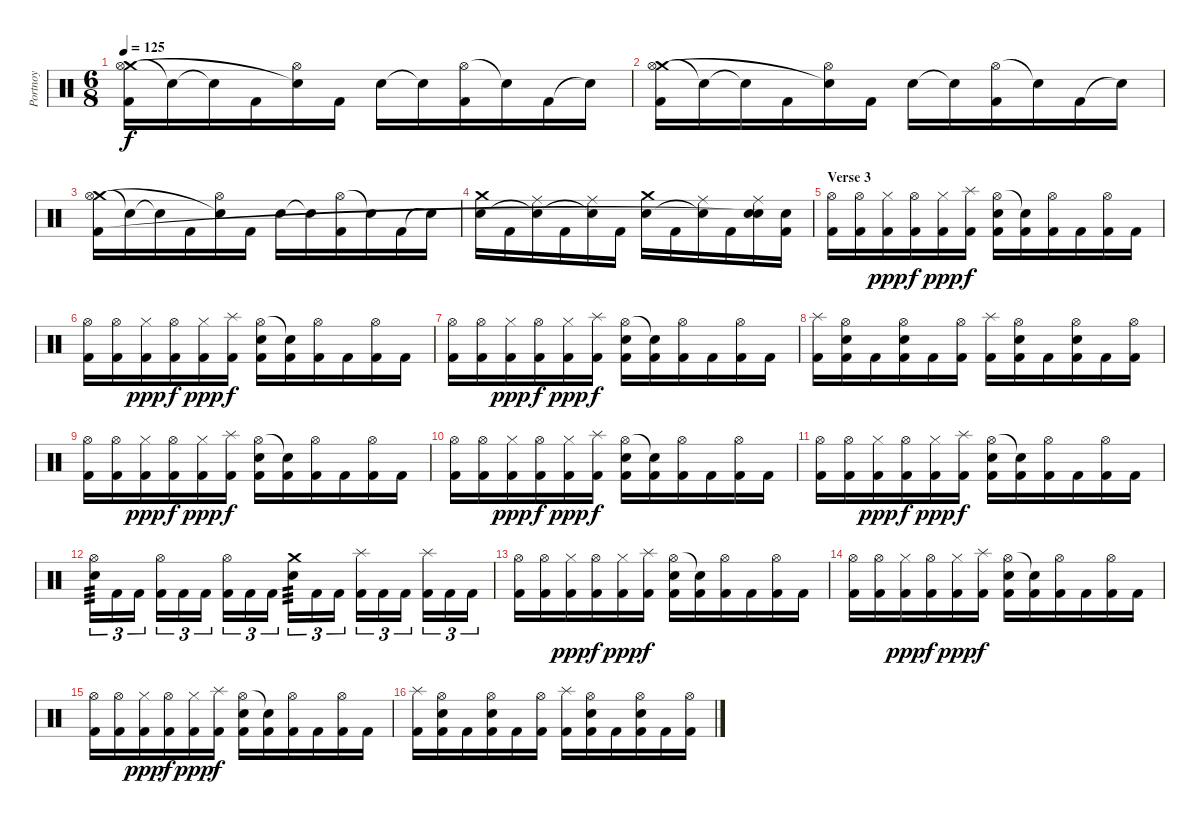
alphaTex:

\track ("Portnoy" "Portnoy") {instrument percussion}
\staff {score}
\articulation defaults
\ts (6 8)
\tempo 125
\clef neutral
\ks c
("Crash medium (hit)" "Hi-Hat (open)" "Kick (hit) 2").16{dy f} "Snare (hit)"{t}.16 "Snare (hit)"{t}.16 "Kick (hit) 2".16 ("Hi-Hat (open)" "Snare (hit)"{t}).16 "Kick (hit) 2".16 "Snare (hit) 2".16 "Snare (hit)"{t}.16 ("Hi-Hat (open)" "Kick (hit) 2").16 "Snare (hit)"{t}.16 "Kick (hit) 2".16 "Snare (hit)"{t}.16 |
("Crash medium (hit)" "Hi-Hat (open)" "Kick (hit) 2").16 "Snare (hit)"{t}.16 "Snare (hit)"{t}.16 "Kick (hit) 2".16 ("Hi-Hat (open)" "Snare (hit)"{t}).16 "Kick (hit) 2".16 "Snare (hit) 2".16 "Snare (hit)"{t}.16 ("Hi-Hat (open)" "Kick (hit) 2").16 "Snare (hit)"{t}.16 "Kick (hit) 2".16 "Snare (hit)"{t}.16 |
("Crash medium (hit)" "Hi-Hat (open)" "Kick (hit) 2").16 "Snare (hit)"{t}.16 "Snare (hit)"{t}.16 "Kick (hit) 2".16 ("Hi-Hat (open)" "Snare (hit)"{t}).16 "Kick (hit) 2".16 "Snare (hit) 2".16 "Snare (hit)"{t}.16 ("Hi-Hat (open)" "Kick (hit) 2").16 "Snare (hit)"{t}.16 "Kick (hit) 2".16 "Snare (hit)"{t}.16 |
("Crash medium (hit)" "Snare (hit) 2").16 "Kick (hit) 2".16 ("Ride (middle)" "Snare (hit)"{t}).16 "Kick (hit) 2".16 ("Ride (middle)" "Snare (hit)"{t}).16 "Kick (hit) 2".16 ("Crash medium (hit)" "Snare (hit) 2").16 "Kick (hit) 2".16 ("Ride (middle)" "Snare (hit)"{t}).16 "Kick (hit) 2".16 ("Ride (middle)" "Snare (hit) 2" "Snare (hit)"{t}).16 ("Snare (hit) 2" "Kick (hit) 2").16 |
\section ("" "Verse 3")
("Hi-Hat (open)" "Kick (hit) 2").16 ("Hi-Hat (open)" "Kick (hit) 2").16 ("Hi-Hat (closed)" "Kick (hit) 2").16{dy ppp} ("Hi-Hat (open)" "Kick (hit) 2").16{dy f} ("Hi-Hat (closed)" "Kick (hit) 2").16{dy ppp} ("Splash (hit)" "Kick (hit) 2").16{dy f} ("Hi-Hat (open)" "Snare (hit) 2" "Kick (hit) 2").16 ("Snare (hit)"{t} "Kick (hit) 2").16 ("Hi-Hat (open)" "Kick (hit) 2").16 "Kick (hit) 2".16 ("Hi-Hat (open)" "Kick (hit) 2").16 "Kick (hit) 2".16 |
("Hi-Hat (open)" "Kick (hit) 2").16 ("Hi-Hat (open)" "Kick (hit) 2").16 ("Hi-Hat (closed)" "Kick (hit) 2").16{dy ppp} ("Hi-Hat (open)" "Kick (hit) 2").16{dy f} ("Hi-Hat (closed)" "Kick (hit) 2").16{dy ppp} ("Splash (hit)" "Kick (hit) 2").16{dy f} ("Hi-Hat (open)" "Snare (hit) 2" "Kick (hit) 2").16 ("Snare (hit)"{t} "Kick (hit) 2").16 ("Hi-Hat (open)" "Kick (hit) 2").16 "Kick (hit) 2".16 ("Hi-Hat (open)" "Kick (hit) 2").16 "Kick (hit) 2".16 |
("Hi-Hat (open)" "Kick (hit) 2").16 ("Hi-Hat (open)" "Kick (hit) 2").16 ("Hi-Hat (closed)" "Kick (hit) 2").16{dy ppp} ("Hi-Hat (open)" "Kick (hit) 2").16{dy f} ("Hi-Hat (closed)" "Kick (hit) 2").16{dy ppp} ("Splash (hit)" "Kick (hit) 2").16{dy f} ("Hi-Hat (open)" "Snare (hit) 2" "Kick (hit) 2").16 ("Snare (hit)"{t} "Kick (hit) 2").16 ("Hi-Hat (open)" "Kick (hit) 2").16 "Kick (hit) 2".16 ("Hi-Hat (open)" "Kick (hit) 2").16 "Kick (hit) 2".16 |
("Splash (hit)" "Kick (hit) 2").16 ("Hi-Hat (open)" "Snare (hit) 2" "Kick (hit) 2").16 "Kick (hit) 2".16 ("Hi-Hat (open)" "Snare (hit) 2" "Kick (hit) 2").16 "Kick (hit) 2".16 ("Hi-Hat (open)" "Kick (hit) 2").16 ("Splash (hit)" "Kick (hit) 2").16 ("Hi-Hat (open)" "Snare (hit) 2" "Kick (hit) 2").16 "Kick (hit) 2".16 ("Hi-Hat (open)" "Snare (hit) 2" "Kick (hit) 2").16 "Kick (hit) 2".16 ("Hi-Hat (open)" "Kick (hit) 2").16 |
("Hi-Hat (open)" "Kick (hit) 2").16 ("Hi-Hat (open)" "Kick (hit) 2").16 ("Hi-Hat (closed)" "Kick (hit) 2").16{dy ppp} ("Hi-Hat (open)" "Kick (hit) 2").16{dy f} ("Hi-Hat (closed)" "Kick (hit) 2").16{dy ppp} ("Splash (hit)" "Kick (hit) 2").16{dy f} ("Hi-Hat (open)" "Snare (hit) 2" "Kick (hit) 2").16 ("Snare (hit)"{t} "Kick (hit) 2").16 ("Hi-Hat (open)" "Kick (hit) 2").16 "Kick (hit) 2".16 ("Hi-Hat (open)" "Kick (hit) 2").16 "Kick (hit) 2".16 |
("Hi-Hat (open)" "Kick (hit) 2").16 ("Hi-Hat (open)" "Kick (hit) 2").16 ("Hi-Hat (closed)" "Kick (hit) 2").16{dy ppp} ("Hi-Hat (open)" "Kick (hit) 2").16{dy f} ("Hi-Hat (closed)" "Kick (hit) 2").16{dy ppp} ("Splash (hit)" "Kick (hit) 2").16{dy f} ("Hi-Hat (open)" "Snare (hit) 2" "Kick (hit) 2").16 ("Snare (hit)"{t} "Kick (hit) 2").16 ("Hi-Hat (open)" "Kick (hit) 2").16 "Kick (hit) 2".16 ("Hi-Hat (open)" "Kick (hit) 2").16 "Kick (hit) 2".16 |
("Hi-Hat (open)" "Kick (hit) 2").16 ("Hi-Hat (open)" "Kick (hit) 2").16 ("Hi-Hat (closed)" "Kick (hit) 2").16{dy ppp} ("Hi-Hat (open)" "Kick (hit) 2").16{dy f} ("Hi-Hat (closed)" "Kick (hit) 2").16{dy ppp} ("Splash (hit)" "Kick (hit) 2").16{dy f} ("Hi-Hat (open)" "Snare (hit) 2" "Kick (hit) 2").16 ("Snare (hit)"{t} "Kick (hit) 2").16 ("Hi-Hat (open)" "Kick (hit) 2").16 "Kick (hit) 2".16 ("Hi-Hat (open)" "Kick (hit) 2").16 "Kick (hit) 2".16 |
("Hi-Hat (open)" "Snare (hit) 2").16{tu (3 2) tp 3} "Kick (hit) 2".16{tu (3 2)} "Kick (hit) 2".16{tu (3 2)} ("Hi-Hat (open)" "Kick (hit) 2").16{tu (3 2)} "Kick (hit) 2".16{tu (3 2)} "Kick (hit) 2".16{tu (3 2)} ("Hi-Hat (open)" "Kick (hit) 2").16{tu (3 2)} "Kick (hit) 2".16{tu (3 2)} "Kick (hit) 2".16{tu (3 2)} ("Crash medium (hit)" "Snare (hit) 2").16{tu (3 2) tp 3} "Kick (hit) 2".16{tu (3 2)} "Kick (hit) 2".16{tu (3 2)} ("Splash (hit)" "Kick (hit) 2").16{tu (3 2)} "Kick (hit) 2".16{tu (3 2)} "Kick (hit) 2".16{tu (3 2)} ("Splash (hit)" "Kick (hit) 2").16{tu (3 2)} "Kick (hit) 2".16{tu (3 2)} "Kick (hit) 2".16{tu (3 2)} |
("Hi-Hat (open)" "Kick (hit) 2").16 ("Hi-Hat (open)" "Kick (hit) 2").16 ("Hi-Hat (closed)" "Kick (hit) 2").16{dy ppp} ("Hi-Hat (open)" "Kick (hit) 2").16{dy f} ("Hi-Hat (closed)" "Kick (hit) 2").16{dy ppp} ("Splash (hit)" "Kick (hit) 2").16{dy f} ("Hi-Hat (open)" "Snare (hit) 2" "Kick (hit) 2").16 ("Snare (hit)"{t} "Kick (hit) 2").16 ("Hi-Hat (open)" "Kick (hit) 2").16 "Kick (hit) 2".16 ("Hi-Hat (open)" "Kick (hit) 2").16 "Kick (hit) 2".16 |
("Hi-Hat (open)" "Kick (hit) 2").16 ("Hi-Hat (open)" "Kick (hit) 2").16 ("Hi-Hat (closed)" "Kick (hit) 2").16{dy ppp} ("Hi-Hat (open)" "Kick (hit) 2").16{dy f} ("Hi-Hat (closed)" "Kick (hit) 2").16{dy ppp} ("Splash (hit)" "Kick (hit) 2").16{dy f} ("Hi-Hat (open)" "Snare (hit) 2" "Kick (hit) 2").16 ("Snare (hit)"{t} "Kick (hit) 2").16 ("Hi-Hat (open)" "Kick (hit) 2").16 "Kick (hit) 2".16 ("Hi-Hat (open)" "Kick (hit) 2").16 "Kick (hit) 2".16 |
("Hi-Hat (open)" "Kick (hit) 2").16 ("Hi-Hat (open)" "Kick (hit) 2").16 ("Hi-Hat (closed)" "Kick (hit) 2").16{dy ppp} ("Hi-Hat (open)" "Kick (hit) 2").16{dy f} ("Hi-Hat (closed)" "Kick (hit) 2").16{dy ppp} ("Splash (hit)" "Kick (hit) 2").16{dy f} ("Hi-Hat (open)" "Snare (hit) 2" "Kick (hit) 2").16 ("Snare (hit)"{t} "Kick (hit) 2").16 ("Hi-Hat (open)" "Kick (hit) 2").16 "Kick (hit) 2".16 ("Hi-Hat (open)" "Kick (hit) 2").16 "Kick (hit) 2".16 |
("Splash (hit)" "Kick (hit) 2").16 ("Hi-Hat (open)" "Snare (hit) 2" "Kick (hit) 2").16 "Kick (hit) 2".16 ("Hi-Hat (open)" "Snare (hit) 2" "Kick (hit) 2").16 "Kick (hit) 2".16 ("Hi-Hat (open)" "Kick (hit) 2").16 ("Splash (hit)" "Kick (hit) 2").16 ("Hi-Hat (open)" "Snare (hit) 2" "Kick (hit) 2").16 "Kick (hit) 2".16 ("Hi-Hat (open)" "Snare (hit) 2" "Kick (hit) 2").16 "Kick (hit) 2".16 ("Hi-Hat (open)" "Kick (hit) 2").16
